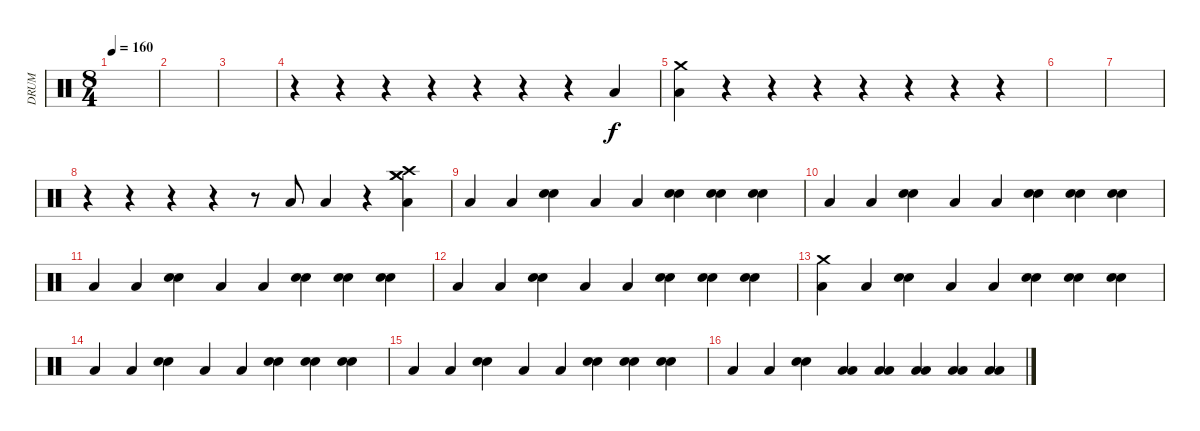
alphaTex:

\track ("DRUM" "DRUM") {instrument percussion}
\staff {score}
\articulation defaults
\ts (8 4)
\tempo 160
\clef neutral
\ks c
|
|
|
r.4 r.4 r.4 r.4 r.4 r.4 r.4 "Low Floor Tom (hit)".4 |
("Low Floor Tom (hit)" "Crash medium (hit)").4 r.4 r.4 r.4 r.4 r.4 r.4 r.4 |
|
|
r.4 r.4 r.4 r.4 r.8 "Low Floor Tom (hit)".8 "Low Floor Tom (hit)".4 r.4 ("Low Floor Tom (hit)" "Crash high (hit)" "Crash medium (hit)" "Crash medium (hit)").4 |
"Low Floor Tom (hit)".4 "Low Floor Tom (hit)".4 ("Electric Snare (hit)" "Electric Snare (hit)").4 "Low Floor Tom (hit)".4 "Low Floor Tom (hit)".4 ("Electric Snare (hit)" "Electric Snare (hit)").4 ("Electric Snare (hit)" "Electric Snare (hit)").4 ("Electric Snare (hit)" "Electric Snare (hit)").4 |
"Low Floor Tom (hit)".4 "Low Floor Tom (hit)".4 ("Electric Snare (hit)" "Electric Snare (hit)").4 "Low Floor Tom (hit)".4 "Low Floor Tom (hit)".4 ("Electric Snare (hit)" "Electric Snare (hit)").4 ("Electric Snare (hit)" "Electric Snare (hit)").4 ("Electric Snare (hit)" "Electric Snare (hit)").4 |
"Low Floor Tom (hit)".4 "Low Floor Tom (hit)".4 ("Electric Snare (hit)" "Electric Snare (hit)").4 "Low Floor Tom (hit)".4 "Low Floor Tom (hit)".4 ("Electric Snare (hit)" "Electric Snare (hit)").4 ("Electric Snare (hit)" "Electric Snare (hit)").4 ("Electric Snare (hit)" "Electric Snare (hit)").4 |
"Low Floor Tom (hit)".4 "Low Floor Tom (hit)".4 ("Electric Snare (hit)" "Electric Snare (hit)").4 "Low Floor Tom (hit)".4 "Low Floor Tom (hit)".4 ("Electric Snare (hit)" "Electric Snare (hit)").4 ("Electric Snare (hit)" "Electric Snare (hit)").4 ("Electric Snare (hit)" "Electric Snare (hit)").4 |
("Low Floor Tom (hit)" "Crash medium (hit)").4 "Low Floor Tom (hit)".4 ("Electric Snare (hit)" "Electric Snare (hit)").4 "Low Floor Tom (hit)".4 "Low Floor Tom (hit)".4 ("Electric Snare (hit)" "Electric Snare (hit)").4 ("Electric Snare (hit)" "Electric Snare (hit)").4 ("Electric Snare (hit)" "Electric Snare (hit)").4 |
"Low Floor Tom (hit)".4 "Low Floor Tom (hit)".4 ("Electric Snare (hit)" "Electric Snare (hit)").4 "Low Floor Tom (hit)".4 "Low Floor Tom (hit)".4 ("Electric Snare (hit)" "Electric Snare (hit)").4 ("Electric Snare (hit)" "Electric Snare (hit)").4 ("Electric Snare (hit)" "Electric Snare (hit)").4 |
"Low Floor Tom (hit)".4 "Low Floor Tom (hit)".4 ("Electric Snare (hit)" "Electric Snare (hit)").4 "Low Floor Tom (hit)".4 "Low Floor Tom (hit)".4 ("Electric Snare (hit)" "Electric Snare (hit)").4 ("Electric Snare (hit)" "Electric Snare (hit)").4 ("Electric Snare (hit)" "Electric Snare (hit)").4 |
"Low Floor Tom (hit)".4 "Low Floor Tom (hit)".4 ("Electric Snare (hit)" "Electric Snare (hit)").4 ("Low Floor Tom (hit)" "Low Floor Tom (hit)").4 ("Low Floor Tom (hit)" "Low Floor Tom (hit)").4 ("Low Floor Tom (hit)" "Low Floor Tom (hit)").4 ("Low Floor Tom (hit)" "Low Floor Tom (hit)").4 ("Low Floor Tom (hit)" "Low Floor Tom (hit)").4
